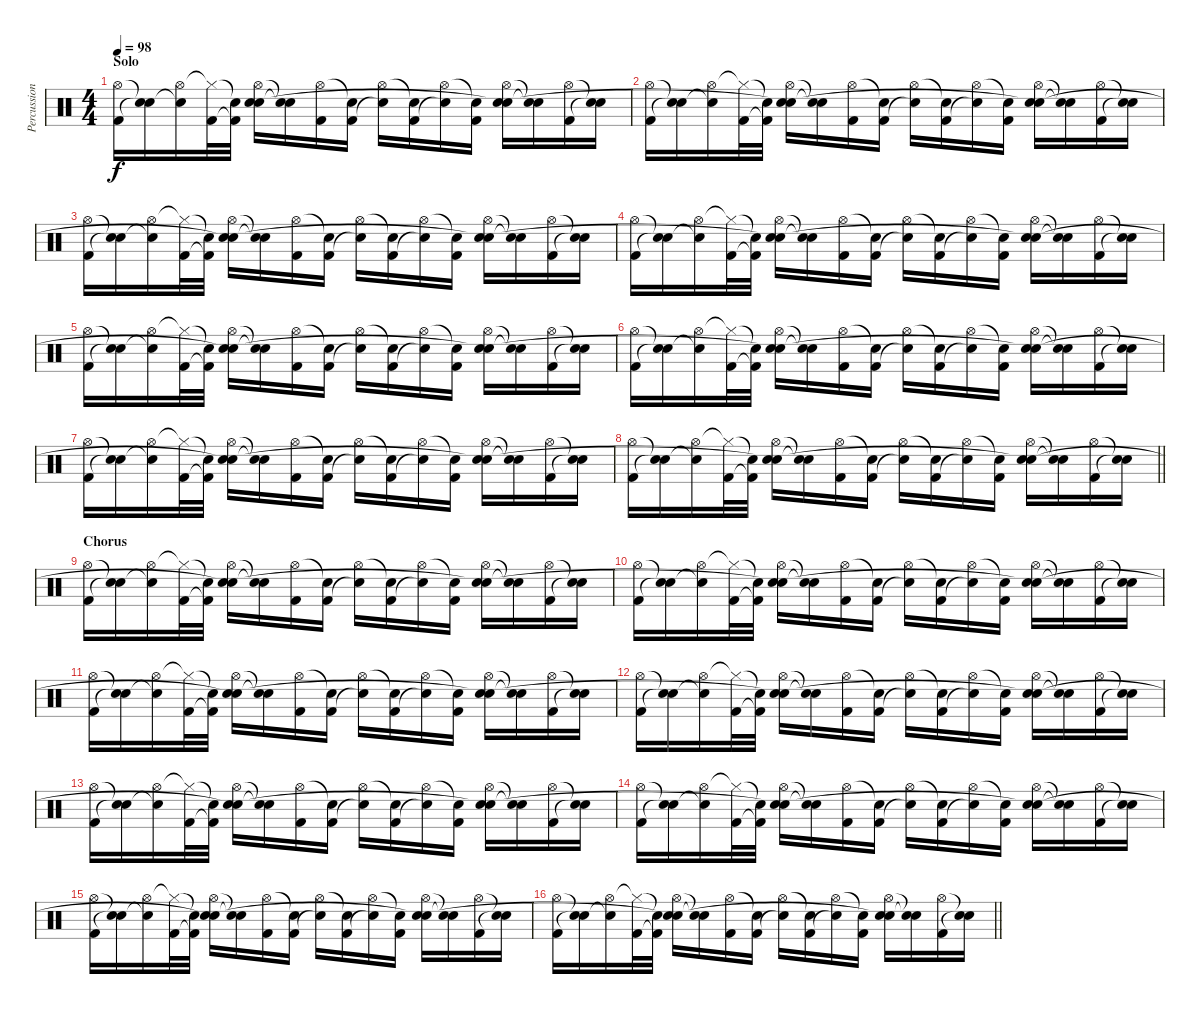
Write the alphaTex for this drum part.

\track ("Percussion" "Percussion") {instrument percussion}
\staff {score}
\articulation defaults
\ts (4 4)
\section ("" "Solo")
\tempo 98
\clef neutral
\ks c
("Hi-Hat (open)" "Kick (hit) 2").16{dy f} ("Snare (hit)"{t} "Snare (hit)"{t}).16 ("Hi-Hat (open)" "Snare (hit)"{t}).16 ("Hi-Hat (closed)"{t} "Kick (hit) 2").32 ("Snare (hit)"{t} "Kick (hit) 2"{t}).32 ("Hi-Hat (open)" "Electric Snare (hit)" "Snare (hit)"{t}).16 ("Snare (hit)"{t} "Snare (hit)"{t}).16 ("Hi-Hat (open)" "Kick (hit) 2").16 ("Snare (hit)"{t} "Kick (hit) 2").16 ("Hi-Hat (open)" "Snare (hit)"{t}).16 ("Snare (hit)"{t} "Kick (hit) 2").16 ("Hi-Hat (open)" "Snare (hit)"{t}).16 ("Snare (hit)"{t} "Kick (hit) 2").16 ("Hi-Hat (open)" "Electric Snare (hit)" "Snare (hit)"{t}).16 ("Snare (hit)"{t} "Snare (hit)"{t}).16 ("Hi-Hat (open)" "Kick (hit) 2").16 ("Snare (hit)"{t} "Snare (hit)"{t}).16 |
("Hi-Hat (open)" "Kick (hit) 2").16 ("Snare (hit)"{t} "Snare (hit)"{t}).16 ("Hi-Hat (open)" "Snare (hit)"{t}).16 ("Hi-Hat (closed)"{t} "Kick (hit) 2").32 ("Snare (hit)"{t} "Kick (hit) 2"{t}).32 ("Hi-Hat (open)" "Electric Snare (hit)" "Snare (hit)"{t}).16 ("Snare (hit)"{t} "Snare (hit)"{t}).16 ("Hi-Hat (open)" "Kick (hit) 2").16 ("Snare (hit)"{t} "Kick (hit) 2").16 ("Hi-Hat (open)" "Snare (hit)"{t}).16 ("Snare (hit)"{t} "Kick (hit) 2").16 ("Hi-Hat (open)" "Snare (hit)"{t}).16 ("Snare (hit)"{t} "Kick (hit) 2").16 ("Hi-Hat (open)" "Electric Snare (hit)" "Snare (hit)"{t}).16 ("Snare (hit)"{t} "Snare (hit)"{t}).16 ("Hi-Hat (open)" "Kick (hit) 2").16 ("Snare (hit)"{t} "Snare (hit)"{t}).16 |
("Hi-Hat (open)" "Kick (hit) 2").16 ("Snare (hit)"{t} "Snare (hit)"{t}).16 ("Hi-Hat (open)" "Snare (hit)"{t}).16 ("Hi-Hat (closed)"{t} "Kick (hit) 2").32 ("Snare (hit)"{t} "Kick (hit) 2"{t}).32 ("Hi-Hat (open)" "Electric Snare (hit)" "Snare (hit)"{t}).16 ("Snare (hit)"{t} "Snare (hit)"{t}).16 ("Hi-Hat (open)" "Kick (hit) 2").16 ("Snare (hit)"{t} "Kick (hit) 2").16 ("Hi-Hat (open)" "Snare (hit)"{t}).16 ("Snare (hit)"{t} "Kick (hit) 2").16 ("Hi-Hat (open)" "Snare (hit)"{t}).16 ("Snare (hit)"{t} "Kick (hit) 2").16 ("Hi-Hat (open)" "Electric Snare (hit)" "Snare (hit)"{t}).16 ("Snare (hit)"{t} "Snare (hit)"{t}).16 ("Hi-Hat (open)" "Kick (hit) 2").16 ("Snare (hit)"{t} "Snare (hit)"{t}).16 |
("Hi-Hat (open)" "Kick (hit) 2").16 ("Snare (hit)"{t} "Snare (hit)"{t}).16 ("Hi-Hat (open)" "Snare (hit)"{t}).16 ("Hi-Hat (closed)"{t} "Kick (hit) 2").32 ("Snare (hit)"{t} "Kick (hit) 2"{t}).32 ("Hi-Hat (open)" "Electric Snare (hit)" "Snare (hit)"{t}).16 ("Snare (hit)"{t} "Snare (hit)"{t}).16 ("Hi-Hat (open)" "Kick (hit) 2").16 ("Snare (hit)"{t} "Kick (hit) 2").16 ("Hi-Hat (open)" "Snare (hit)"{t}).16 ("Snare (hit)"{t} "Kick (hit) 2").16 ("Hi-Hat (open)" "Snare (hit)"{t}).16 ("Snare (hit)"{t} "Kick (hit) 2").16 ("Hi-Hat (open)" "Electric Snare (hit)" "Snare (hit)"{t}).16 ("Snare (hit)"{t} "Snare (hit)"{t}).16 ("Hi-Hat (open)" "Kick (hit) 2").16 ("Snare (hit)"{t} "Snare (hit)"{t}).16 |
("Hi-Hat (open)" "Kick (hit) 2").16 ("Snare (hit)"{t} "Snare (hit)"{t}).16 ("Hi-Hat (open)" "Snare (hit)"{t}).16 ("Hi-Hat (closed)"{t} "Kick (hit) 2").32 ("Snare (hit)"{t} "Kick (hit) 2"{t}).32 ("Hi-Hat (open)" "Electric Snare (hit)" "Snare (hit)"{t}).16 ("Snare (hit)"{t} "Snare (hit)"{t}).16 ("Hi-Hat (open)" "Kick (hit) 2").16 ("Snare (hit)"{t} "Kick (hit) 2").16 ("Hi-Hat (open)" "Snare (hit)"{t}).16 ("Snare (hit)"{t} "Kick (hit) 2").16 ("Hi-Hat (open)" "Snare (hit)"{t}).16 ("Snare (hit)"{t} "Kick (hit) 2").16 ("Hi-Hat (open)" "Electric Snare (hit)" "Snare (hit)"{t}).16 ("Snare (hit)"{t} "Snare (hit)"{t}).16 ("Hi-Hat (open)" "Kick (hit) 2").16 ("Snare (hit)"{t} "Snare (hit)"{t}).16 |
("Hi-Hat (open)" "Kick (hit) 2").16 ("Snare (hit)"{t} "Snare (hit)"{t}).16 ("Hi-Hat (open)" "Snare (hit)"{t}).16 ("Hi-Hat (closed)"{t} "Kick (hit) 2").32 ("Snare (hit)"{t} "Kick (hit) 2"{t}).32 ("Hi-Hat (open)" "Electric Snare (hit)" "Snare (hit)"{t}).16 ("Snare (hit)"{t} "Snare (hit)"{t}).16 ("Hi-Hat (open)" "Kick (hit) 2").16 ("Snare (hit)"{t} "Kick (hit) 2").16 ("Hi-Hat (open)" "Snare (hit)"{t}).16 ("Snare (hit)"{t} "Kick (hit) 2").16 ("Hi-Hat (open)" "Snare (hit)"{t}).16 ("Snare (hit)"{t} "Kick (hit) 2").16 ("Hi-Hat (open)" "Electric Snare (hit)" "Snare (hit)"{t}).16 ("Snare (hit)"{t} "Snare (hit)"{t}).16 ("Hi-Hat (open)" "Kick (hit) 2").16 ("Snare (hit)"{t} "Snare (hit)"{t}).16 |
("Hi-Hat (open)" "Kick (hit) 2").16 ("Snare (hit)"{t} "Snare (hit)"{t}).16 ("Hi-Hat (open)" "Snare (hit)"{t}).16 ("Hi-Hat (closed)"{t} "Kick (hit) 2").32 ("Snare (hit)"{t} "Kick (hit) 2"{t}).32 ("Hi-Hat (open)" "Electric Snare (hit)" "Snare (hit)"{t}).16 ("Snare (hit)"{t} "Snare (hit)"{t}).16 ("Hi-Hat (open)" "Kick (hit) 2").16 ("Snare (hit)"{t} "Kick (hit) 2").16 ("Hi-Hat (open)" "Snare (hit)"{t}).16 ("Snare (hit)"{t} "Kick (hit) 2").16 ("Hi-Hat (open)" "Snare (hit)"{t}).16 ("Snare (hit)"{t} "Kick (hit) 2").16 ("Hi-Hat (open)" "Electric Snare (hit)" "Snare (hit)"{t}).16 ("Snare (hit)"{t} "Snare (hit)"{t}).16 ("Hi-Hat (open)" "Kick (hit) 2").16 ("Snare (hit)"{t} "Snare (hit)"{t}).16 |
\barLineRight lightlight
("Hi-Hat (open)" "Kick (hit) 2").16 ("Snare (hit)"{t} "Snare (hit)"{t}).16 ("Hi-Hat (open)" "Snare (hit)"{t}).16 ("Hi-Hat (closed)"{t} "Kick (hit) 2").32 ("Snare (hit)"{t} "Kick (hit) 2"{t}).32 ("Hi-Hat (open)" "Electric Snare (hit)" "Snare (hit)"{t}).16 ("Snare (hit)"{t} "Snare (hit)"{t}).16 ("Hi-Hat (open)" "Kick (hit) 2").16 ("Snare (hit)"{t} "Kick (hit) 2").16 ("Hi-Hat (open)" "Snare (hit)"{t}).16 ("Snare (hit)"{t} "Kick (hit) 2").16 ("Hi-Hat (open)" "Snare (hit)"{t}).16 ("Snare (hit)"{t} "Kick (hit) 2").16 ("Hi-Hat (open)" "Electric Snare (hit)" "Snare (hit)"{t}).16 ("Snare (hit)"{t} "Snare (hit)"{t}).16 ("Hi-Hat (open)" "Kick (hit) 2").16 ("Snare (hit)"{t} "Snare (hit)"{t}).16 |
\section ("" "Chorus")
("Hi-Hat (open)" "Kick (hit) 2").16 ("Snare (hit)"{t} "Snare (hit)"{t}).16 ("Hi-Hat (open)" "Snare (hit)"{t}).16 ("Hi-Hat (closed)"{t} "Kick (hit) 2").32 ("Snare (hit)"{t} "Kick (hit) 2"{t}).32 ("Hi-Hat (open)" "Electric Snare (hit)" "Snare (hit)"{t}).16 ("Snare (hit)"{t} "Snare (hit)"{t}).16 ("Hi-Hat (open)" "Kick (hit) 2").16 ("Snare (hit)"{t} "Kick (hit) 2").16 ("Hi-Hat (open)" "Snare (hit)"{t}).16 ("Snare (hit)"{t} "Kick (hit) 2").16 ("Hi-Hat (open)" "Snare (hit)"{t}).16 ("Snare (hit)"{t} "Kick (hit) 2").16 ("Hi-Hat (open)" "Electric Snare (hit)" "Snare (hit)"{t}).16 ("Snare (hit)"{t} "Snare (hit)"{t}).16 ("Hi-Hat (open)" "Kick (hit) 2").16 ("Snare (hit)"{t} "Snare (hit)"{t}).16 |
("Hi-Hat (open)" "Kick (hit) 2").16 ("Snare (hit)"{t} "Snare (hit)"{t}).16 ("Hi-Hat (open)" "Snare (hit)"{t}).16 ("Hi-Hat (closed)"{t} "Kick (hit) 2").32 ("Snare (hit)"{t} "Kick (hit) 2"{t}).32 ("Hi-Hat (open)" "Electric Snare (hit)" "Snare (hit)"{t}).16 ("Snare (hit)"{t} "Snare (hit)"{t}).16 ("Hi-Hat (open)" "Kick (hit) 2").16 ("Snare (hit)"{t} "Kick (hit) 2").16 ("Hi-Hat (open)" "Snare (hit)"{t}).16 ("Snare (hit)"{t} "Kick (hit) 2").16 ("Hi-Hat (open)" "Snare (hit)"{t}).16 ("Snare (hit)"{t} "Kick (hit) 2").16 ("Hi-Hat (open)" "Electric Snare (hit)" "Snare (hit)"{t}).16 ("Snare (hit)"{t} "Snare (hit)"{t}).16 ("Hi-Hat (open)" "Kick (hit) 2").16 ("Snare (hit)"{t} "Snare (hit)"{t}).16 |
("Hi-Hat (open)" "Kick (hit) 2").16 ("Snare (hit)"{t} "Snare (hit)"{t}).16 ("Hi-Hat (open)" "Snare (hit)"{t}).16 ("Hi-Hat (closed)"{t} "Kick (hit) 2").32 ("Snare (hit)"{t} "Kick (hit) 2"{t}).32 ("Hi-Hat (open)" "Electric Snare (hit)" "Snare (hit)"{t}).16 ("Snare (hit)"{t} "Snare (hit)"{t}).16 ("Hi-Hat (open)" "Kick (hit) 2").16 ("Snare (hit)"{t} "Kick (hit) 2").16 ("Hi-Hat (open)" "Snare (hit)"{t}).16 ("Snare (hit)"{t} "Kick (hit) 2").16 ("Hi-Hat (open)" "Snare (hit)"{t}).16 ("Snare (hit)"{t} "Kick (hit) 2").16 ("Hi-Hat (open)" "Electric Snare (hit)" "Snare (hit)"{t}).16 ("Snare (hit)"{t} "Snare (hit)"{t}).16 ("Hi-Hat (open)" "Kick (hit) 2").16 ("Snare (hit)"{t} "Snare (hit)"{t}).16 |
("Hi-Hat (open)" "Kick (hit) 2").16 ("Snare (hit)"{t} "Snare (hit)"{t}).16 ("Hi-Hat (open)" "Snare (hit)"{t}).16 ("Hi-Hat (closed)"{t} "Kick (hit) 2").32 ("Snare (hit)"{t} "Kick (hit) 2"{t}).32 ("Hi-Hat (open)" "Electric Snare (hit)" "Snare (hit)"{t}).16 ("Snare (hit)"{t} "Snare (hit)"{t}).16 ("Hi-Hat (open)" "Kick (hit) 2").16 ("Snare (hit)"{t} "Kick (hit) 2").16 ("Hi-Hat (open)" "Snare (hit)"{t}).16 ("Snare (hit)"{t} "Kick (hit) 2").16 ("Hi-Hat (open)" "Snare (hit)"{t}).16 ("Snare (hit)"{t} "Kick (hit) 2").16 ("Hi-Hat (open)" "Electric Snare (hit)" "Snare (hit)"{t}).16 ("Snare (hit)"{t} "Snare (hit)"{t}).16 ("Hi-Hat (open)" "Kick (hit) 2").16 ("Snare (hit)"{t} "Snare (hit)"{t}).16 |
("Hi-Hat (open)" "Kick (hit) 2").16 ("Snare (hit)"{t} "Snare (hit)"{t}).16 ("Hi-Hat (open)" "Snare (hit)"{t}).16 ("Hi-Hat (closed)"{t} "Kick (hit) 2").32 ("Snare (hit)"{t} "Kick (hit) 2"{t}).32 ("Hi-Hat (open)" "Electric Snare (hit)" "Snare (hit)"{t}).16 ("Snare (hit)"{t} "Snare (hit)"{t}).16 ("Hi-Hat (open)" "Kick (hit) 2").16 ("Snare (hit)"{t} "Kick (hit) 2").16 ("Hi-Hat (open)" "Snare (hit)"{t}).16 ("Snare (hit)"{t} "Kick (hit) 2").16 ("Hi-Hat (open)" "Snare (hit)"{t}).16 ("Snare (hit)"{t} "Kick (hit) 2").16 ("Hi-Hat (open)" "Electric Snare (hit)" "Snare (hit)"{t}).16 ("Snare (hit)"{t} "Snare (hit)"{t}).16 ("Hi-Hat (open)" "Kick (hit) 2").16 ("Snare (hit)"{t} "Snare (hit)"{t}).16 |
("Hi-Hat (open)" "Kick (hit) 2").16 ("Snare (hit)"{t} "Snare (hit)"{t}).16 ("Hi-Hat (open)" "Snare (hit)"{t}).16 ("Hi-Hat (closed)"{t} "Kick (hit) 2").32 ("Snare (hit)"{t} "Kick (hit) 2"{t}).32 ("Hi-Hat (open)" "Electric Snare (hit)" "Snare (hit)"{t}).16 ("Snare (hit)"{t} "Snare (hit)"{t}).16 ("Hi-Hat (open)" "Kick (hit) 2").16 ("Snare (hit)"{t} "Kick (hit) 2").16 ("Hi-Hat (open)" "Snare (hit)"{t}).16 ("Snare (hit)"{t} "Kick (hit) 2").16 ("Hi-Hat (open)" "Snare (hit)"{t}).16 ("Snare (hit)"{t} "Kick (hit) 2").16 ("Hi-Hat (open)" "Electric Snare (hit)" "Snare (hit)"{t}).16 ("Snare (hit)"{t} "Snare (hit)"{t}).16 ("Hi-Hat (open)" "Kick (hit) 2").16 ("Snare (hit)"{t} "Snare (hit)"{t}).16 |
("Hi-Hat (open)" "Kick (hit) 2").16 ("Snare (hit)"{t} "Snare (hit)"{t}).16 ("Hi-Hat (open)" "Snare (hit)"{t}).16 ("Hi-Hat (closed)"{t} "Kick (hit) 2").32 ("Snare (hit)"{t} "Kick (hit) 2"{t}).32 ("Hi-Hat (open)" "Electric Snare (hit)" "Snare (hit)"{t}).16 ("Snare (hit)"{t} "Snare (hit)"{t}).16 ("Hi-Hat (open)" "Kick (hit) 2").16 ("Snare (hit)"{t} "Kick (hit) 2").16 ("Hi-Hat (open)" "Snare (hit)"{t}).16 ("Snare (hit)"{t} "Kick (hit) 2").16 ("Hi-Hat (open)" "Snare (hit)"{t}).16 ("Snare (hit)"{t} "Kick (hit) 2").16 ("Hi-Hat (open)" "Electric Snare (hit)" "Snare (hit)"{t}).16 ("Snare (hit)"{t} "Snare (hit)"{t}).16 ("Hi-Hat (open)" "Kick (hit) 2").16 ("Snare (hit)"{t} "Snare (hit)"{t}).16 |
\barLineRight lightlight
("Hi-Hat (open)" "Kick (hit) 2").16 ("Snare (hit)"{t} "Snare (hit)"{t}).16 ("Hi-Hat (open)" "Snare (hit)"{t}).16 ("Hi-Hat (closed)"{t} "Kick (hit) 2").32 ("Snare (hit)"{t} "Kick (hit) 2"{t}).32 ("Hi-Hat (open)" "Electric Snare (hit)" "Snare (hit)"{t}).16 ("Snare (hit)"{t} "Snare (hit)"{t}).16 ("Hi-Hat (open)" "Kick (hit) 2").16 ("Snare (hit)"{t} "Kick (hit) 2").16 ("Hi-Hat (open)" "Snare (hit)"{t}).16 ("Snare (hit)"{t} "Kick (hit) 2").16 ("Hi-Hat (open)" "Snare (hit)"{t}).16 ("Snare (hit)"{t} "Kick (hit) 2").16 ("Hi-Hat (open)" "Electric Snare (hit)" "Snare (hit)"{t}).16 ("Snare (hit)"{t} "Snare (hit)"{t}).16 ("Hi-Hat (open)" "Kick (hit) 2").16 ("Snare (hit)"{t} "Snare (hit)"{t}).16
